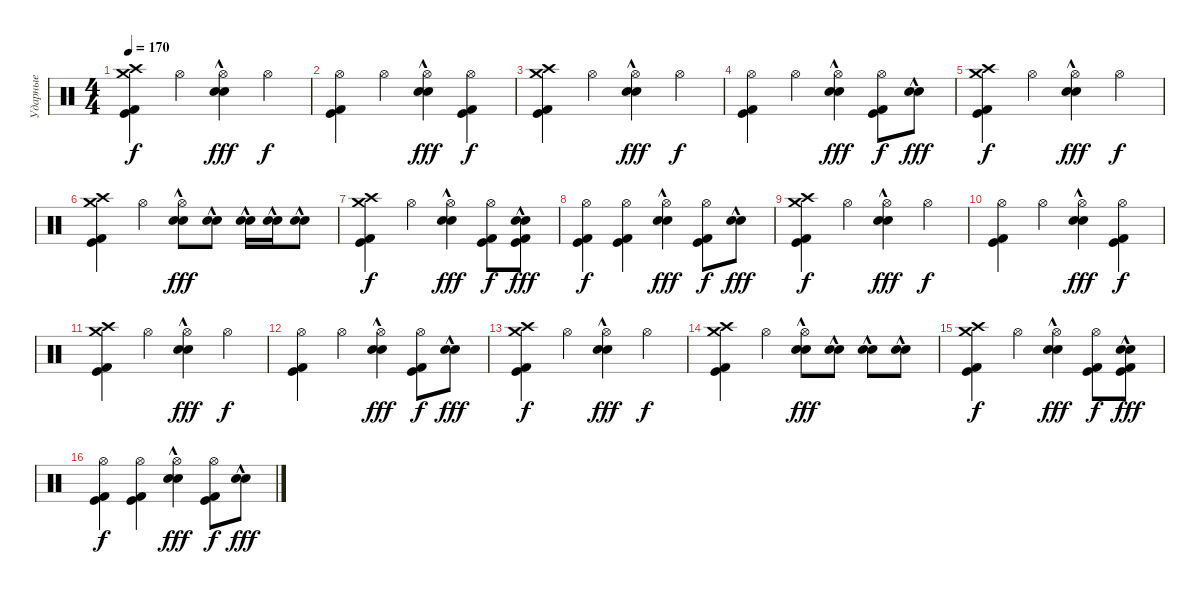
\track ("Ударные" "Ударные") {instrument percussion}
\staff {score}
\articulation defaults
\ts (4 4)
\tempo 170
\clef neutral
\ks c
("Crash high (hit)" "Kick (hit)" "Kick (hit) 2" "Crash medium (hit)").4{dy f} "Hi-Hat (open)".4 ("Hi-Hat (open)" "Snare (hit) 2"{hac} "Electric Snare (hit)"{hac}).4{dy fff} "Hi-Hat (open)".4{dy f} |
("Hi-Hat (open)" "Kick (hit)" "Kick (hit) 2").4 "Hi-Hat (open)".4 ("Hi-Hat (open)" "Snare (hit) 2"{hac} "Electric Snare (hit)"{hac}).4{dy fff} ("Hi-Hat (open)" "Kick (hit)" "Kick (hit) 2").4{dy f} |
("Crash high (hit)" "Kick (hit)" "Kick (hit) 2" "Crash medium (hit)").4 "Hi-Hat (open)".4 ("Hi-Hat (open)" "Snare (hit) 2"{hac} "Electric Snare (hit)"{hac}).4{dy fff} "Hi-Hat (open)".4{dy f} |
("Hi-Hat (open)" "Kick (hit)" "Kick (hit) 2").4 "Hi-Hat (open)".4 ("Hi-Hat (open)" "Snare (hit) 2"{hac} "Electric Snare (hit)"{hac}).4{dy fff} ("Hi-Hat (open)" "Kick (hit)" "Kick (hit) 2").8{dy f} ("Snare (hit) 2"{hac} "Electric Snare (hit)"{hac}).8{dy fff} |
("Crash high (hit)" "Kick (hit)" "Kick (hit) 2" "Crash medium (hit)").4{dy f} "Hi-Hat (open)".4 ("Hi-Hat (open)" "Snare (hit) 2"{hac} "Electric Snare (hit)"{hac}).4{dy fff} "Hi-Hat (open)".4{dy f} |
("Crash high (hit)" "Kick (hit)" "Kick (hit) 2" "Crash medium (hit)").4 "Hi-Hat (open)".4 ("Hi-Hat (open)" "Snare (hit) 2"{hac} "Electric Snare (hit)"{hac}).8{dy fff} ("Snare (hit) 2"{hac} "Electric Snare (hit)"{hac}).8 ("Snare (hit) 2"{hac} "Electric Snare (hit)"{hac}).16 ("Snare (hit) 2"{hac} "Electric Snare (hit)"{hac}).16 ("Snare (hit) 2"{hac} "Electric Snare (hit)"{hac}).8 |
("Crash high (hit)" "Kick (hit)" "Kick (hit) 2" "Crash medium (hit)").4{dy f} "Hi-Hat (open)".4 ("Hi-Hat (open)" "Snare (hit) 2"{hac} "Electric Snare (hit)"{hac}).4{dy fff} ("Hi-Hat (open)" "Kick (hit)" "Kick (hit) 2").8{dy f} ("Kick (hit)" "Kick (hit) 2" "Snare (hit) 2"{hac} "Electric Snare (hit)"{hac}).8{dy fff} |
("Hi-Hat (open)" "Kick (hit)" "Kick (hit) 2").4{dy f} ("Hi-Hat (open)" "Kick (hit)" "Kick (hit) 2").4 ("Hi-Hat (open)" "Snare (hit) 2"{hac} "Electric Snare (hit)"{hac}).4{dy fff} ("Hi-Hat (open)" "Kick (hit)" "Kick (hit) 2").8{dy f} ("Snare (hit) 2"{hac} "Electric Snare (hit)"{hac}).8{dy fff} |
("Crash high (hit)" "Kick (hit)" "Kick (hit) 2" "Crash medium (hit)").4{dy f} "Hi-Hat (open)".4 ("Hi-Hat (open)" "Snare (hit) 2"{hac} "Electric Snare (hit)"{hac}).4{dy fff} "Hi-Hat (open)".4{dy f} |
("Hi-Hat (open)" "Kick (hit)" "Kick (hit) 2").4 "Hi-Hat (open)".4 ("Hi-Hat (open)" "Snare (hit) 2"{hac} "Electric Snare (hit)"{hac}).4{dy fff} ("Hi-Hat (open)" "Kick (hit)" "Kick (hit) 2").4{dy f} |
("Crash high (hit)" "Kick (hit)" "Kick (hit) 2" "Crash medium (hit)").4 "Hi-Hat (open)".4 ("Hi-Hat (open)" "Snare (hit) 2"{hac} "Electric Snare (hit)"{hac}).4{dy fff} "Hi-Hat (open)".4{dy f} |
("Hi-Hat (open)" "Kick (hit)" "Kick (hit) 2").4 "Hi-Hat (open)".4 ("Hi-Hat (open)" "Snare (hit) 2"{hac} "Electric Snare (hit)"{hac}).4{dy fff} ("Hi-Hat (open)" "Kick (hit)" "Kick (hit) 2").8{dy f} ("Snare (hit) 2"{hac} "Electric Snare (hit)"{hac}).8{dy fff} |
("Crash high (hit)" "Kick (hit)" "Kick (hit) 2" "Crash medium (hit)").4{dy f} "Hi-Hat (open)".4 ("Hi-Hat (open)" "Snare (hit) 2"{hac} "Electric Snare (hit)"{hac}).4{dy fff} "Hi-Hat (open)".4{dy f} |
("Crash high (hit)" "Kick (hit)" "Kick (hit) 2" "Crash medium (hit)").4 "Hi-Hat (open)".4 ("Hi-Hat (open)" "Snare (hit) 2"{hac} "Electric Snare (hit)"{hac}).8{dy fff} ("Snare (hit) 2"{hac} "Electric Snare (hit)"{hac}).8 ("Snare (hit) 2"{hac} "Electric Snare (hit)"{hac}).8 ("Snare (hit) 2"{hac} "Electric Snare (hit)"{hac}).8 |
("Crash high (hit)" "Kick (hit)" "Kick (hit) 2" "Crash medium (hit)").4{dy f} "Hi-Hat (open)".4 ("Hi-Hat (open)" "Snare (hit) 2"{hac} "Electric Snare (hit)"{hac}).4{dy fff} ("Hi-Hat (open)" "Kick (hit)" "Kick (hit) 2").8{dy f} ("Kick (hit)" "Kick (hit) 2" "Snare (hit) 2"{hac} "Electric Snare (hit)"{hac}).8{dy fff} |
("Hi-Hat (open)" "Kick (hit)" "Kick (hit) 2").4{dy f} ("Hi-Hat (open)" "Kick (hit)" "Kick (hit) 2").4 ("Hi-Hat (open)" "Snare (hit) 2"{hac} "Electric Snare (hit)"{hac}).4{dy fff} ("Hi-Hat (open)" "Kick (hit)" "Kick (hit) 2").8{dy f} ("Snare (hit) 2"{hac} "Electric Snare (hit)"{hac}).8{dy fff}
